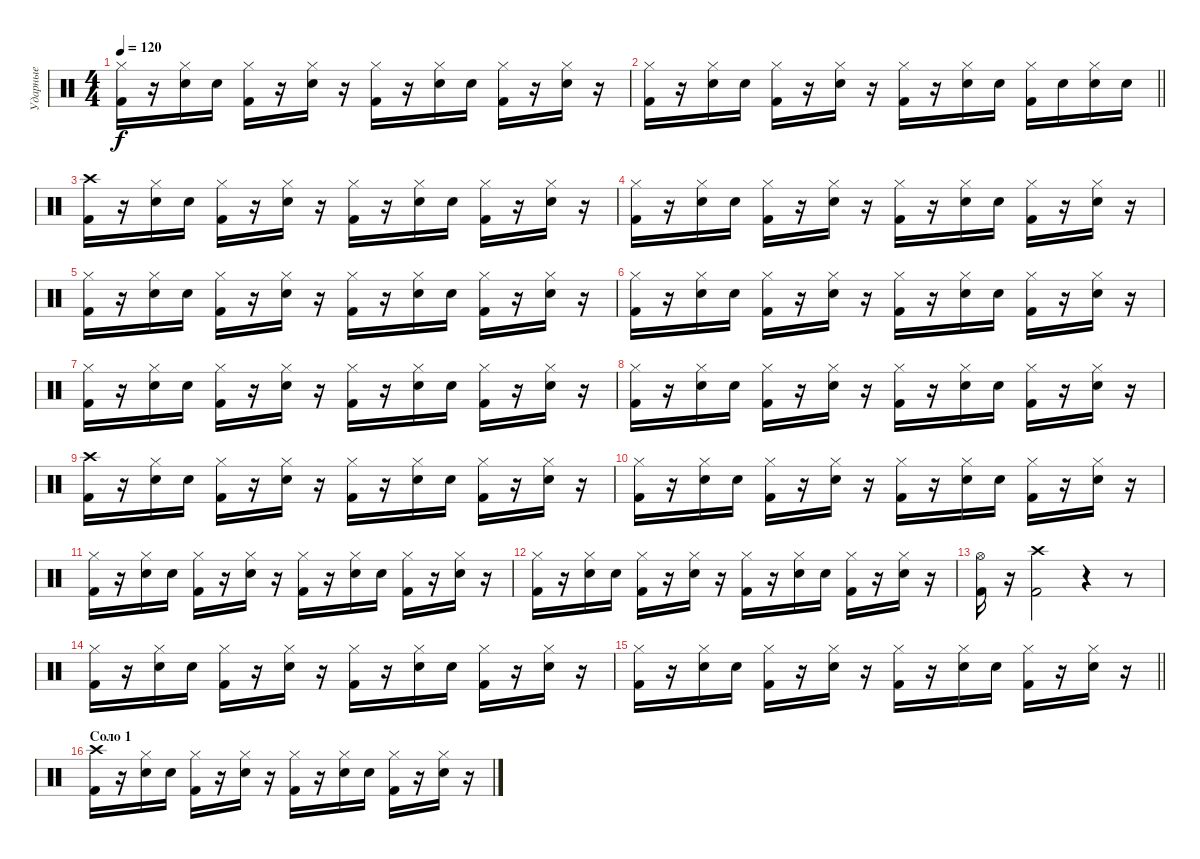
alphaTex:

\track ("Ударные" "Ударные") {instrument percussion}
\staff {score}
\articulation defaults
\ts (4 4)
\tempo 120
\clef neutral
\ks c
("Hi-Hat (closed)" "Kick (hit) 2").16{dy f} r.16 ("Hi-Hat (closed)" "Electric Snare (hit)").16 "Electric Snare (hit)".16 ("Hi-Hat (closed)" "Kick (hit) 2").16 r.16 ("Hi-Hat (closed)" "Electric Snare (hit)").16 r.16 ("Hi-Hat (closed)" "Kick (hit) 2").16 r.16 ("Hi-Hat (closed)" "Electric Snare (hit)").16 "Electric Snare (hit)".16 ("Hi-Hat (closed)" "Kick (hit) 2").16 r.16 ("Hi-Hat (closed)" "Electric Snare (hit)").16 r.16 |
\barLineRight lightlight
("Hi-Hat (closed)" "Kick (hit) 2").16 r.16 ("Hi-Hat (closed)" "Electric Snare (hit)").16 "Electric Snare (hit)".16 ("Hi-Hat (closed)" "Kick (hit) 2").16 r.16 ("Hi-Hat (closed)" "Electric Snare (hit)").16 r.16 ("Hi-Hat (closed)" "Kick (hit) 2").16 r.16 ("Hi-Hat (closed)" "Electric Snare (hit)").16 "Electric Snare (hit)".16 ("Hi-Hat (closed)" "Kick (hit) 2").16 "Electric Snare (hit)".16 ("Hi-Hat (closed)" "Electric Snare (hit)").16 "Electric Snare (hit)".16 |
("Crash high (hit)" "Kick (hit) 2").16 r.16 ("Hi-Hat (closed)" "Electric Snare (hit)").16 "Electric Snare (hit)".16 ("Hi-Hat (closed)" "Kick (hit) 2").16 r.16 ("Hi-Hat (closed)" "Electric Snare (hit)").16 r.16 ("Hi-Hat (closed)" "Kick (hit) 2").16 r.16 ("Hi-Hat (closed)" "Electric Snare (hit)").16 "Electric Snare (hit)".16 ("Hi-Hat (closed)" "Kick (hit) 2").16 r.16 ("Hi-Hat (closed)" "Electric Snare (hit)").16 r.16 |
("Hi-Hat (closed)" "Kick (hit) 2").16 r.16 ("Hi-Hat (closed)" "Electric Snare (hit)").16 "Electric Snare (hit)".16 ("Hi-Hat (closed)" "Kick (hit) 2").16 r.16 ("Hi-Hat (closed)" "Electric Snare (hit)").16 r.16 ("Hi-Hat (closed)" "Kick (hit) 2").16 r.16 ("Hi-Hat (closed)" "Electric Snare (hit)").16 "Electric Snare (hit)".16 ("Hi-Hat (closed)" "Kick (hit) 2").16 r.16 ("Hi-Hat (closed)" "Electric Snare (hit)").16 r.16 |
("Hi-Hat (closed)" "Kick (hit) 2").16 r.16 ("Hi-Hat (closed)" "Electric Snare (hit)").16 "Electric Snare (hit)".16 ("Hi-Hat (closed)" "Kick (hit) 2").16 r.16 ("Hi-Hat (closed)" "Electric Snare (hit)").16 r.16 ("Hi-Hat (closed)" "Kick (hit) 2").16 r.16 ("Hi-Hat (closed)" "Electric Snare (hit)").16 "Electric Snare (hit)".16 ("Hi-Hat (closed)" "Kick (hit) 2").16 r.16 ("Hi-Hat (closed)" "Electric Snare (hit)").16 r.16 |
("Hi-Hat (closed)" "Kick (hit) 2").16 r.16 ("Hi-Hat (closed)" "Electric Snare (hit)").16 "Electric Snare (hit)".16 ("Hi-Hat (closed)" "Kick (hit) 2").16 r.16 ("Hi-Hat (closed)" "Electric Snare (hit)").16 r.16 ("Hi-Hat (closed)" "Kick (hit) 2").16 r.16 ("Hi-Hat (closed)" "Electric Snare (hit)").16 "Electric Snare (hit)".16 ("Hi-Hat (closed)" "Kick (hit) 2").16 r.16 ("Hi-Hat (closed)" "Electric Snare (hit)").16 r.16 |
("Hi-Hat (closed)" "Kick (hit) 2").16 r.16 ("Hi-Hat (closed)" "Electric Snare (hit)").16 "Electric Snare (hit)".16 ("Hi-Hat (closed)" "Kick (hit) 2").16 r.16 ("Hi-Hat (closed)" "Electric Snare (hit)").16 r.16 ("Hi-Hat (closed)" "Kick (hit) 2").16 r.16 ("Hi-Hat (closed)" "Electric Snare (hit)").16 "Electric Snare (hit)".16 ("Hi-Hat (closed)" "Kick (hit) 2").16 r.16 ("Hi-Hat (closed)" "Electric Snare (hit)").16 r.16 |
("Hi-Hat (closed)" "Kick (hit) 2").16 r.16 ("Hi-Hat (closed)" "Electric Snare (hit)").16 "Electric Snare (hit)".16 ("Hi-Hat (closed)" "Kick (hit) 2").16 r.16 ("Hi-Hat (closed)" "Electric Snare (hit)").16 r.16 ("Hi-Hat (closed)" "Kick (hit) 2").16 r.16 ("Hi-Hat (closed)" "Electric Snare (hit)").16 "Electric Snare (hit)".16 ("Hi-Hat (closed)" "Kick (hit) 2").16 r.16 ("Hi-Hat (closed)" "Electric Snare (hit)").16 r.16 |
("Crash high (hit)" "Kick (hit) 2").16 r.16 ("Hi-Hat (closed)" "Electric Snare (hit)").16 "Electric Snare (hit)".16 ("Hi-Hat (closed)" "Kick (hit) 2").16 r.16 ("Hi-Hat (closed)" "Electric Snare (hit)").16 r.16 ("Hi-Hat (closed)" "Kick (hit) 2").16 r.16 ("Hi-Hat (closed)" "Electric Snare (hit)").16 "Electric Snare (hit)".16 ("Hi-Hat (closed)" "Kick (hit) 2").16 r.16 ("Hi-Hat (closed)" "Electric Snare (hit)").16 r.16 |
("Hi-Hat (closed)" "Kick (hit) 2").16 r.16 ("Hi-Hat (closed)" "Electric Snare (hit)").16 "Electric Snare (hit)".16 ("Hi-Hat (closed)" "Kick (hit) 2").16 r.16 ("Hi-Hat (closed)" "Electric Snare (hit)").16 r.16 ("Hi-Hat (closed)" "Kick (hit) 2").16 r.16 ("Hi-Hat (closed)" "Electric Snare (hit)").16 "Electric Snare (hit)".16 ("Hi-Hat (closed)" "Kick (hit) 2").16 r.16 ("Hi-Hat (closed)" "Electric Snare (hit)").16 r.16 |
("Hi-Hat (closed)" "Kick (hit) 2").16 r.16 ("Hi-Hat (closed)" "Electric Snare (hit)").16 "Electric Snare (hit)".16 ("Hi-Hat (closed)" "Kick (hit) 2").16 r.16 ("Hi-Hat (closed)" "Electric Snare (hit)").16 r.16 ("Hi-Hat (closed)" "Kick (hit) 2").16 r.16 ("Hi-Hat (closed)" "Electric Snare (hit)").16 "Electric Snare (hit)".16 ("Hi-Hat (closed)" "Kick (hit) 2").16 r.16 ("Hi-Hat (closed)" "Electric Snare (hit)").16 r.16 |
("Hi-Hat (closed)" "Kick (hit) 2").16 r.16 ("Hi-Hat (closed)" "Electric Snare (hit)").16 "Electric Snare (hit)".16 ("Hi-Hat (closed)" "Kick (hit) 2").16 r.16 ("Hi-Hat (closed)" "Electric Snare (hit)").16 r.16 ("Hi-Hat (closed)" "Kick (hit) 2").16 r.16 ("Hi-Hat (closed)" "Electric Snare (hit)").16 "Electric Snare (hit)".16 ("Hi-Hat (closed)" "Kick (hit) 2").16 r.16 ("Hi-Hat (closed)" "Electric Snare (hit)").16 r.16 |
("Hi-Hat (open)" "Kick (hit) 2").16 r.16 ("Crash high (hit)" "Kick (hit) 2").2 r.4 r.8 |
("Hi-Hat (closed)" "Kick (hit) 2").16 r.16 ("Hi-Hat (closed)" "Electric Snare (hit)").16 "Electric Snare (hit)".16 ("Hi-Hat (closed)" "Kick (hit) 2").16 r.16 ("Hi-Hat (closed)" "Electric Snare (hit)").16 r.16 ("Hi-Hat (closed)" "Kick (hit) 2").16 r.16 ("Hi-Hat (closed)" "Electric Snare (hit)").16 "Electric Snare (hit)".16 ("Hi-Hat (closed)" "Kick (hit) 2").16 r.16 ("Hi-Hat (closed)" "Electric Snare (hit)").16 r.16 |
\barLineRight lightlight
("Hi-Hat (closed)" "Kick (hit) 2").16 r.16 ("Hi-Hat (closed)" "Electric Snare (hit)").16 "Electric Snare (hit)".16 ("Hi-Hat (closed)" "Kick (hit) 2").16 r.16 ("Hi-Hat (closed)" "Electric Snare (hit)").16 r.16 ("Hi-Hat (closed)" "Kick (hit) 2").16 r.16 ("Hi-Hat (closed)" "Electric Snare (hit)").16 "Electric Snare (hit)".16 ("Hi-Hat (closed)" "Kick (hit) 2").16 r.16 ("Hi-Hat (closed)" "Electric Snare (hit)").16 r.16 |
\section ("" "Соло 1")
("Crash high (hit)" "Kick (hit) 2").16 r.16 ("Hi-Hat (closed)" "Electric Snare (hit)").16 "Electric Snare (hit)".16 ("Hi-Hat (closed)" "Kick (hit) 2").16 r.16 ("Hi-Hat (closed)" "Electric Snare (hit)").16 r.16 ("Hi-Hat (closed)" "Kick (hit) 2").16 r.16 ("Hi-Hat (closed)" "Electric Snare (hit)").16 "Electric Snare (hit)".16 ("Hi-Hat (closed)" "Kick (hit) 2").16 r.16 ("Hi-Hat (closed)" "Electric Snare (hit)").16 r.16
